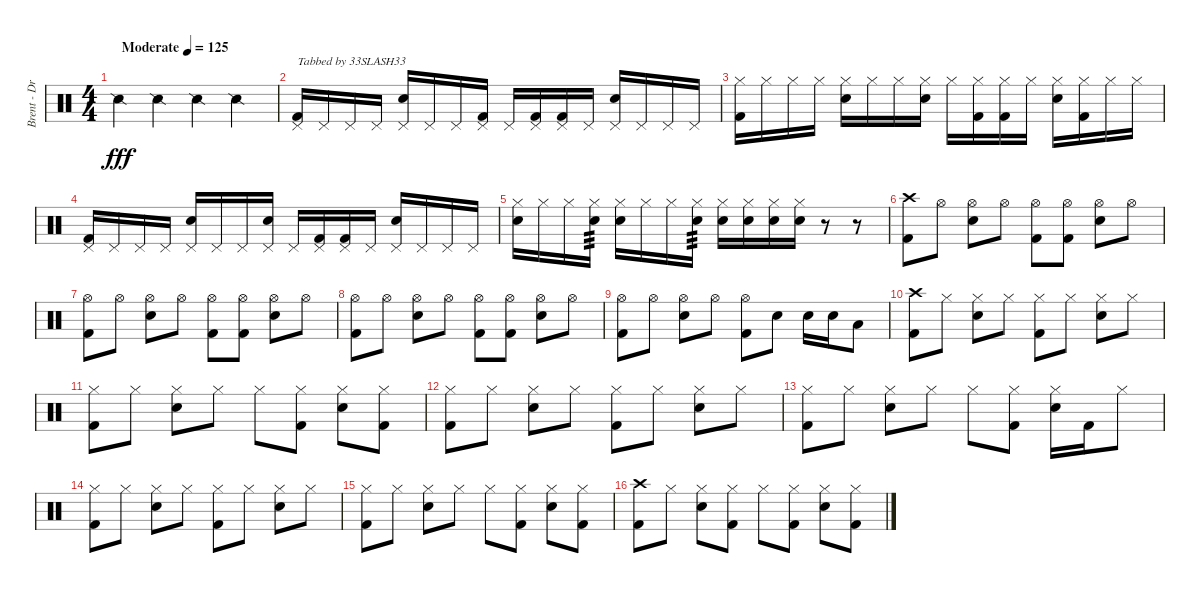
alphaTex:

\track ("Brent - Drums" "Brent - Dr") {instrument percussion}
\staff {score}
\articulation defaults
\ts (4 4)
\tempo (125 "Moderate")
\clef neutral
\ks c "Snare (side stick) 2".4{dy fff} "Snare (side stick) 2".4 "Snare (side stick) 2".4 "Snare (side stick) 2".4
|
("Pedal Hi-Hat (hit)" "Kick (hit) 2").16{txt "Tabbed by 33SLASH33"} "Pedal Hi-Hat (hit)".16 "Pedal Hi-Hat (hit)".16 "Pedal Hi-Hat (hit)".16 ("Pedal Hi-Hat (hit)" "Snare (hit) 2").16 "Pedal Hi-Hat (hit)".16 "Pedal Hi-Hat (hit)".16 ("Pedal Hi-Hat (hit)" "Kick (hit) 2").16 "Pedal Hi-Hat (hit)".16 ("Pedal Hi-Hat (hit)" "Kick (hit) 2").16 ("Pedal Hi-Hat (hit)" "Kick (hit) 2").16 "Pedal Hi-Hat (hit)".16 ("Pedal Hi-Hat (hit)" "Snare (hit) 2").16 "Pedal Hi-Hat (hit)".16 "Pedal Hi-Hat (hit)".16 "Pedal Hi-Hat (hit)".16 |
("Hi-Hat (closed)" "Kick (hit) 2").16 "Hi-Hat (closed)".16 "Hi-Hat (closed)".16 "Hi-Hat (closed)".16 ("Hi-Hat (closed)" "Snare (hit) 2").16 "Hi-Hat (closed)".16 "Hi-Hat (closed)".16 ("Hi-Hat (closed)" "Snare (hit) 2").16 "Hi-Hat (closed)".16 ("Hi-Hat (closed)" "Kick (hit) 2").16 ("Hi-Hat (closed)" "Kick (hit) 2").16 "Hi-Hat (closed)".16 ("Hi-Hat (closed)" "Snare (hit) 2").16 ("Hi-Hat (closed)" "Kick (hit) 2").16 "Hi-Hat (closed)".16 "Hi-Hat (closed)".16 |
("Pedal Hi-Hat (hit)" "Kick (hit) 2").16 "Pedal Hi-Hat (hit)".16 "Pedal Hi-Hat (hit)".16 "Pedal Hi-Hat (hit)".16 ("Pedal Hi-Hat (hit)" "Snare (hit) 2").16 "Pedal Hi-Hat (hit)".16 "Pedal Hi-Hat (hit)".16 ("Pedal Hi-Hat (hit)" "Snare (hit) 2").16 "Pedal Hi-Hat (hit)".16 ("Pedal Hi-Hat (hit)" "Kick (hit) 2").16 ("Pedal Hi-Hat (hit)" "Kick (hit) 2").16 "Pedal Hi-Hat (hit)".16 ("Pedal Hi-Hat (hit)" "Snare (hit) 2").16 "Pedal Hi-Hat (hit)".16 "Pedal Hi-Hat (hit)".16 "Pedal Hi-Hat (hit)".16 |
("Hi-Hat (closed)" "Snare (hit) 2").16 "Hi-Hat (closed)".16 "Hi-Hat (closed)".16 ("Hi-Hat (closed)" "Snare (hit) 2").16{tp 3} ("Hi-Hat (closed)" "Snare (hit) 2").16 "Hi-Hat (closed)".16 "Hi-Hat (closed)".16 ("Hi-Hat (closed)" "Snare (hit) 2").16{tp 3} ("Hi-Hat (closed)" "Snare (hit) 2").16 ("Hi-Hat (closed)" "Snare (hit) 2").16 ("Hi-Hat (closed)" "Snare (hit) 2").16 ("Hi-Hat (closed)" "Snare (hit) 2").16 r.8 r.8 |
("Crash high (hit)" "Kick (hit) 2").8 "Hi-Hat (open)".8 ("Hi-Hat (open)" "Snare (hit) 2").8 "Hi-Hat (open)".8 ("Hi-Hat (open)" "Kick (hit) 2").8 ("Hi-Hat (open)" "Kick (hit) 2").8 ("Hi-Hat (open)" "Snare (hit) 2").8 "Hi-Hat (open)".8 |
("Hi-Hat (open)" "Kick (hit) 2").8 "Hi-Hat (open)".8 ("Hi-Hat (open)" "Snare (hit) 2").8 "Hi-Hat (open)".8 ("Hi-Hat (open)" "Kick (hit) 2").8 ("Hi-Hat (open)" "Kick (hit) 2").8 ("Hi-Hat (open)" "Snare (hit) 2").8 "Hi-Hat (open)".8 |
("Hi-Hat (open)" "Kick (hit) 2").8 "Hi-Hat (open)".8 ("Hi-Hat (open)" "Snare (hit) 2").8 "Hi-Hat (open)".8 ("Hi-Hat (open)" "Kick (hit) 2").8 ("Hi-Hat (open)" "Kick (hit) 2").8 ("Hi-Hat (open)" "Snare (hit) 2").8 "Hi-Hat (open)".8 |
("Hi-Hat (open)" "Kick (hit) 2").8 "Hi-Hat (open)".8 ("Hi-Hat (open)" "Snare (hit) 2").8 "Hi-Hat (open)".8 ("Hi-Hat (open)" "Kick (hit) 2").8 "Snare (hit) 2".8 "Snare (hit) 2".16 "Snare (hit) 2".16 "Low Tom (hit)".8 |
("Crash high (hit)" "Kick (hit) 2").8 "Hi-Hat (closed)".8 ("Hi-Hat (closed)" "Snare (hit) 2").8 "Hi-Hat (closed)".8 ("Hi-Hat (closed)" "Kick (hit) 2").8 "Hi-Hat (closed)".8 ("Hi-Hat (closed)" "Snare (hit) 2").8 "Hi-Hat (closed)".8 |
("Hi-Hat (closed)" "Kick (hit) 2").8 "Hi-Hat (closed)".8 ("Hi-Hat (closed)" "Snare (hit) 2").8 "Hi-Hat (closed)".8 "Hi-Hat (closed)".8 ("Hi-Hat (closed)" "Kick (hit) 2").8 ("Hi-Hat (closed)" "Snare (hit) 2").8 ("Hi-Hat (closed)" "Kick (hit) 2").8 |
("Hi-Hat (closed)" "Kick (hit) 2").8 "Hi-Hat (closed)".8 ("Hi-Hat (closed)" "Snare (hit) 2").8 "Hi-Hat (closed)".8 ("Hi-Hat (closed)" "Kick (hit) 2").8 "Hi-Hat (closed)".8 ("Hi-Hat (closed)" "Snare (hit) 2").8 "Hi-Hat (closed)".8 |
("Hi-Hat (closed)" "Kick (hit) 2").8 "Hi-Hat (closed)".8 ("Hi-Hat (closed)" "Snare (hit) 2").8 "Hi-Hat (closed)".8 "Hi-Hat (closed)".8 ("Hi-Hat (closed)" "Kick (hit) 2").8 ("Hi-Hat (closed)" "Snare (hit) 2").16 "Kick (hit) 2".16 "Hi-Hat (closed)".8 |
("Hi-Hat (closed)" "Kick (hit) 2").8 "Hi-Hat (closed)".8 ("Hi-Hat (closed)" "Snare (hit) 2").8 "Hi-Hat (closed)".8 ("Hi-Hat (closed)" "Kick (hit) 2").8 "Hi-Hat (closed)".8 ("Hi-Hat (closed)" "Snare (hit) 2").8 "Hi-Hat (closed)".8 |
("Hi-Hat (closed)" "Kick (hit) 2").8 "Hi-Hat (closed)".8 ("Hi-Hat (closed)" "Snare (hit) 2").8 "Hi-Hat (closed)".8 "Hi-Hat (closed)".8 ("Hi-Hat (closed)" "Kick (hit) 2").8 ("Hi-Hat (closed)" "Snare (hit) 2").8 ("Hi-Hat (closed)" "Kick (hit) 2").8 |
("Crash high (hit)" "Kick (hit) 2").8 "Hi-Hat (closed)".8 ("Hi-Hat (closed)" "Snare (hit) 2").8 ("Hi-Hat (closed)" "Kick (hit) 2").8 "Hi-Hat (closed)".8 ("Hi-Hat (closed)" "Kick (hit) 2").8 ("Hi-Hat (closed)" "Snare (hit) 2").8 ("Hi-Hat (closed)" "Kick (hit) 2").8
